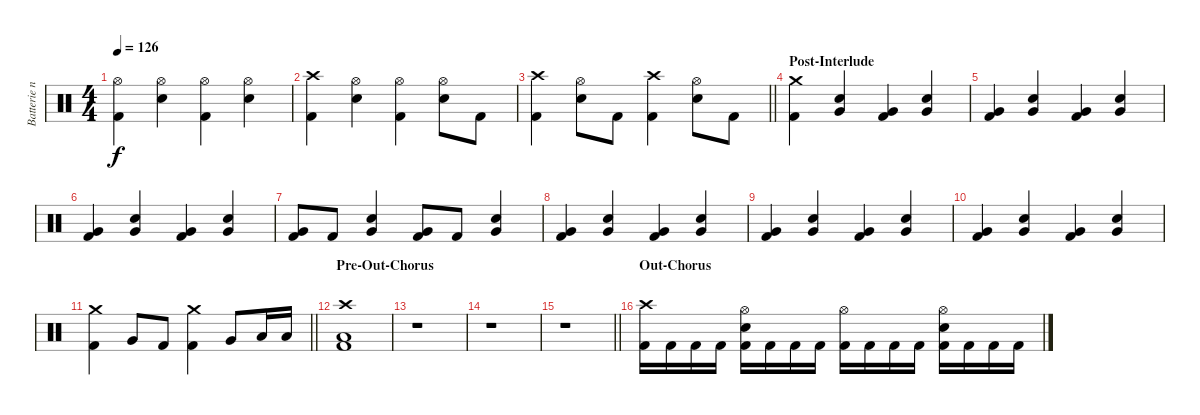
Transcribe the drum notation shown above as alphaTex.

\track ("Batterie n°3" "Batterie n") {instrument percussion}
\staff {score}
\articulation defaults
\ts (4 4)
\tempo 126
\clef neutral
\ks c
("Hi-Hat (open)" "Kick (hit) 2").4{dy f} ("Hi-Hat (open)" "Snare (hit) 2").4 ("Hi-Hat (open)" "Kick (hit) 2").4 ("Hi-Hat (open)" "Snare (hit) 2").4 |
("Crash high (hit)" "Kick (hit) 2").4 ("Hi-Hat (open)" "Snare (hit) 2").4 ("Hi-Hat (open)" "Kick (hit) 2").4 ("Hi-Hat (open)" "Snare (hit) 2").8 "Kick (hit) 2".8 |
\barLineRight lightlight
("Crash high (hit)" "Kick (hit) 2").4 ("Hi-Hat (open)" "Snare (hit) 2").8 "Kick (hit) 2".8 ("Crash high (hit)" "Kick (hit) 2").4 ("Hi-Hat (open)" "Snare (hit) 2").8 "Kick (hit) 2".8 |
\section ("" "Post-Interlude")
("Crash medium (hit)" "Kick (hit) 2").4 ("Very Low Tom (hit)" "Snare (hit) 2").4 ("Very Low Tom (hit)" "Kick (hit) 2").4 ("Very Low Tom (hit)" "Snare (hit) 2").4 |
("Very Low Tom (hit)" "Kick (hit) 2").4 ("Very Low Tom (hit)" "Snare (hit) 2").4 ("Very Low Tom (hit)" "Kick (hit) 2").4 ("Very Low Tom (hit)" "Snare (hit) 2").4 |
("Very Low Tom (hit)" "Kick (hit) 2").4 ("Very Low Tom (hit)" "Snare (hit) 2").4 ("Very Low Tom (hit)" "Kick (hit) 2").4 ("Very Low Tom (hit)" "Snare (hit) 2").4 |
("Very Low Tom (hit)" "Kick (hit) 2").8 "Kick (hit) 2".8 ("Very Low Tom (hit)" "Snare (hit) 2").4 ("Very Low Tom (hit)" "Kick (hit) 2").8 "Kick (hit) 2".8 ("Very Low Tom (hit)" "Snare (hit) 2").4 |
("Very Low Tom (hit)" "Kick (hit) 2").4 ("Very Low Tom (hit)" "Snare (hit) 2").4 ("Very Low Tom (hit)" "Kick (hit) 2").4 ("Very Low Tom (hit)" "Snare (hit) 2").4 |
("Very Low Tom (hit)" "Kick (hit) 2").4 ("Very Low Tom (hit)" "Snare (hit) 2").4 ("Very Low Tom (hit)" "Kick (hit) 2").4 ("Very Low Tom (hit)" "Snare (hit) 2").4 |
("Very Low Tom (hit)" "Kick (hit) 2").4 ("Very Low Tom (hit)" "Snare (hit) 2").4 ("Very Low Tom (hit)" "Kick (hit) 2").4 ("Very Low Tom (hit)" "Snare (hit) 2").4 |
\barLineRight lightlight
("Crash medium (hit)" "Kick (hit) 2").4 "Very Low Tom (hit)".8 "Kick (hit) 2".8 ("Crash medium (hit)" "Kick (hit) 2").4 "Very Low Tom (hit)".8 "Low Floor Tom (hit)".16 "Low Floor Tom (hit)".16 |
\section ("" "Pre-Out-Chorus")
("Crash high (hit)" "Low Floor Tom (hit)" "Kick (hit) 2").1 |
r.1 |
r.1 |
\barLineRight lightlight
r.1 |
\section ("" "Out-Chorus")
("Crash high (hit)" "Kick (hit) 2").16 "Kick (hit) 2".16 "Kick (hit) 2".16 "Kick (hit) 2".16 ("Hi-Hat (open)" "Snare (hit) 2" "Kick (hit) 2").16 "Kick (hit) 2".16 "Kick (hit) 2".16 "Kick (hit) 2".16 ("Hi-Hat (open)" "Kick (hit) 2").16 "Kick (hit) 2".16 "Kick (hit) 2".16 "Kick (hit) 2".16 ("Hi-Hat (open)" "Snare (hit) 2" "Kick (hit) 2").16 "Kick (hit) 2".16 "Kick (hit) 2".16 "Kick (hit) 2".16
